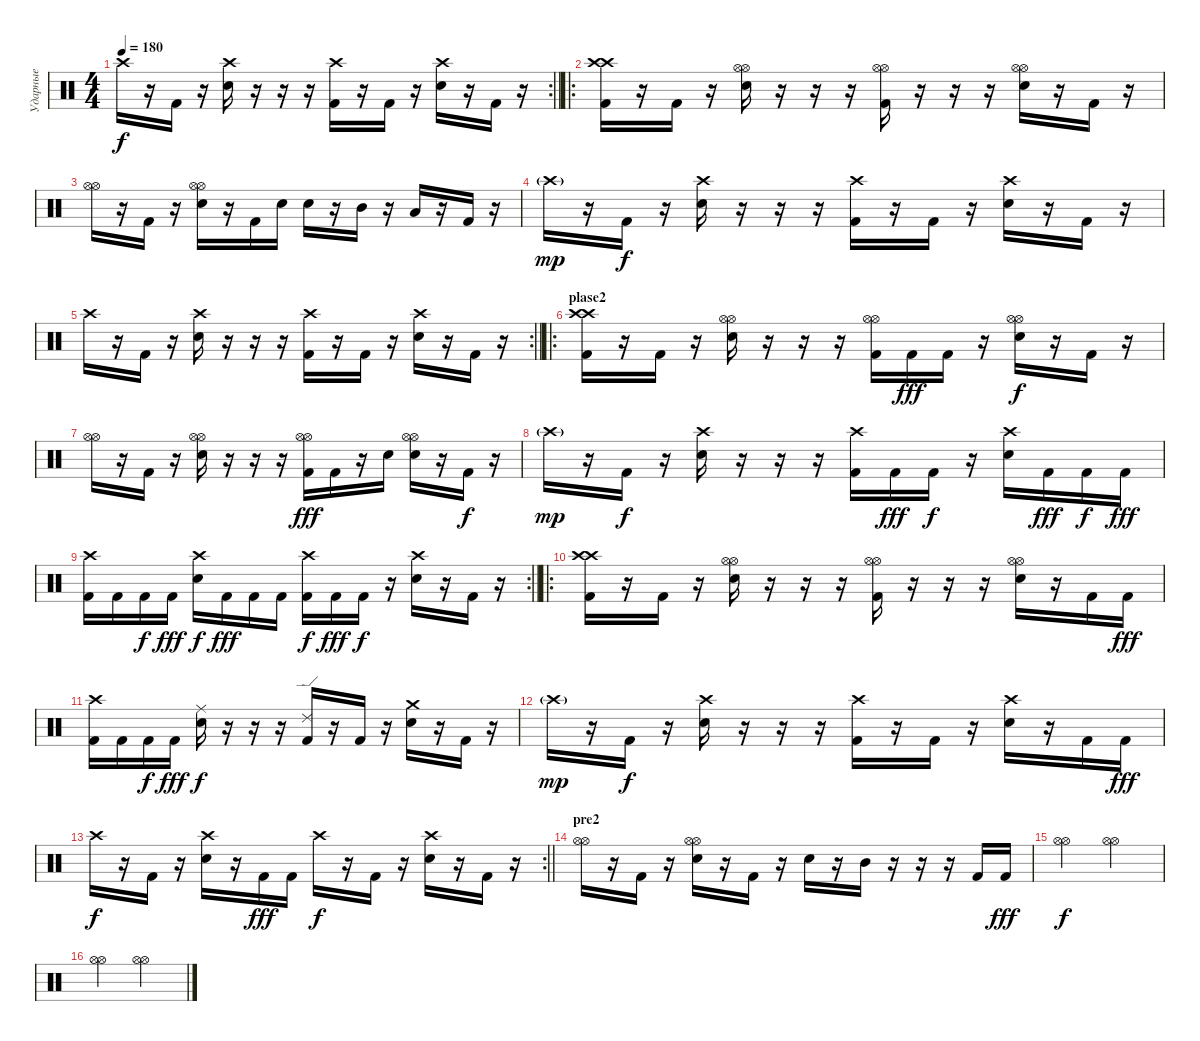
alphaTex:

\track ("Ударные" "Ударные") {instrument percussion}
\staff {score}
\articulation defaults
\rc 2
\ts (4 4)
\tempo 180
\clef neutral
\barLineRight lightlight
\ks c "Crash high (hit)".16{dy f}
r.16 "Kick (hit) 2".16 r.16 ("Crash high (hit)" "Electric Snare (hit)").16 r.16 r.16 r.16 ("Crash high (hit)" "Kick (hit) 2").16 r.16 "Kick (hit) 2".16 r.16 ("Crash high (hit)" "Electric Snare (hit)").16 r.16 "Kick (hit) 2".16 r.16 |
\ro
("Crash high (hit)" "Crash high (hit)" "Kick (hit) 2").16 r.16 "Kick (hit) 2".16 r.16 ("Hi-Hat (open)" "Hi-Hat (open)" "Electric Snare (hit)").16 r.16 r.16 r.16 ("Hi-Hat (open)" "Hi-Hat (open)" "Kick (hit) 2").16 r.16 r.16 r.16 ("Hi-Hat (open)" "Hi-Hat (open)" "Electric Snare (hit)").16 r.16 "Kick (hit) 2".16 r.16 |
("Hi-Hat (open)" "Hi-Hat (open)").16 r.16 "Kick (hit) 2".16 r.16 ("Hi-Hat (open)" "Hi-Hat (open)" "Electric Snare (hit)").16 r.16 "Kick (hit) 2".16 "Electric Snare (hit)".16 "Electric Snare (hit)".16 r.16 "Mid Tom (hit)".16 r.16 "Low Tom (hit)".16 r.16 "Kick (hit) 2".16 r.16 |
"Crash high (hit)"{g}.16{dy mp} r.16 "Kick (hit) 2".16{dy f} r.16 ("Crash high (hit)" "Electric Snare (hit)").16 r.16 r.16 r.16 ("Crash high (hit)" "Kick (hit) 2").16 r.16 "Kick (hit) 2".16 r.16 ("Crash high (hit)" "Electric Snare (hit)").16 r.16 "Kick (hit) 2".16 r.16 |
\rc 2
\barLineRight lightlight "Crash high (hit)".16
r.16 "Kick (hit) 2".16 r.16 ("Crash high (hit)" "Electric Snare (hit)").16 r.16 r.16 r.16 ("Crash high (hit)" "Kick (hit) 2").16 r.16 "Kick (hit) 2".16 r.16 ("Crash high (hit)" "Electric Snare (hit)").16 r.16 "Kick (hit) 2".16 r.16 |
\ro
\section ("" "plase2")
("Crash high (hit)" "Crash high (hit)" "Kick (hit) 2").16 r.16 "Kick (hit) 2".16 r.16 ("Hi-Hat (open)" "Hi-Hat (open)" "Electric Snare (hit)").16 r.16 r.16 r.16 ("Hi-Hat (open)" "Hi-Hat (open)" "Kick (hit) 2").16 "Kick (hit) 2".16{dy fff} "Kick (hit) 2".16 r.16 ("Hi-Hat (open)" "Hi-Hat (open)" "Electric Snare (hit)").16{dy f} r.16 "Kick (hit) 2".16 r.16 |
("Hi-Hat (open)" "Hi-Hat (open)").16 r.16 "Kick (hit) 2".16 r.16 ("Hi-Hat (open)" "Hi-Hat (open)" "Electric Snare (hit)").16 r.16 r.16 r.16 ("Hi-Hat (open)" "Hi-Hat (open)" "Kick (hit) 2").16{dy fff} "Kick (hit) 2".16 r.16 "Electric Snare (hit)".16 ("Hi-Hat (open)" "Hi-Hat (open)" "Electric Snare (hit)").16 r.16 "Kick (hit) 2".16{dy f} r.16 |
"Crash high (hit)"{g}.16{dy mp} r.16 "Kick (hit) 2".16{dy f} r.16 ("Crash high (hit)" "Electric Snare (hit)").16 r.16 r.16 r.16 ("Crash high (hit)" "Kick (hit) 2").16 "Kick (hit) 2".16{dy fff} "Kick (hit) 2".16{dy f} r.16 ("Crash high (hit)" "Electric Snare (hit)").16 "Kick (hit) 2".16{dy fff} "Kick (hit) 2".16{dy f} "Kick (hit) 2".16{dy fff} |
\rc 2
\barLineRight lightlight
("Crash high (hit)" "Kick (hit) 2").16 "Kick (hit) 2".16 "Kick (hit) 2".16{dy f} "Kick (hit) 2".16{dy fff} ("Crash high (hit)" "Electric Snare (hit)").16{dy f} "Kick (hit) 2".16{dy fff} "Kick (hit) 2".16 "Kick (hit) 2".16 ("Crash high (hit)" "Kick (hit) 2").16{dy f} "Kick (hit) 2".16{dy fff} "Kick (hit) 2".16{dy f} r.16 ("Crash high (hit)" "Electric Snare (hit)").16 r.16 "Kick (hit) 2".16 r.16 |
\ro
("Crash high (hit)" "Crash high (hit)" "Kick (hit) 2").16 r.16 "Kick (hit) 2".16 r.16 ("Hi-Hat (open)" "Hi-Hat (open)" "Electric Snare (hit)").16 r.16 r.16 r.16 ("Hi-Hat (open)" "Hi-Hat (open)" "Kick (hit) 2").16 r.16 r.16 r.16 ("Hi-Hat (open)" "Hi-Hat (open)" "Electric Snare (hit)").16 r.16 "Kick (hit) 2".16 "Kick (hit) 2".16{dy fff} |
("Crash high (hit)" "Kick (hit) 2").16 "Kick (hit) 2".16 "Kick (hit) 2".16{dy f} "Kick (hit) 2".16{dy fff} ("Ride (middle)" "Electric Snare (hit)").16{dy f} r.16 r.16 r.16 ("Ride (edge) 2" "Kick (hit) 2").16 r.16 "Kick (hit) 2".16 r.16 ("Crash medium (hit)" "Electric Snare (hit)").16 r.16 "Kick (hit) 2".16 r.16 |
"Crash high (hit)"{g}.16{dy mp} r.16 "Kick (hit) 2".16{dy f} r.16 ("Crash high (hit)" "Electric Snare (hit)").16 r.16 r.16 r.16 ("Crash high (hit)" "Kick (hit) 2").16 r.16 "Kick (hit) 2".16 r.16 ("Crash high (hit)" "Electric Snare (hit)").16 r.16 "Kick (hit) 2".16 "Kick (hit) 2".16{dy fff} |
\rc 2
\barLineRight lightlight "Crash high (hit)".16{dy f}
r.16 "Kick (hit) 2".16 r.16 ("Crash high (hit)" "Electric Snare (hit)").16 r.16 "Kick (hit) 2".16{dy fff} "Kick (hit) 2".16 "Crash high (hit)".16{dy f} r.16 "Kick (hit) 2".16 r.16 ("Crash high (hit)" "Electric Snare (hit)").16 r.16 "Kick (hit) 2".16 r.16 |
\section ("" "pre2")
("Hi-Hat (open)" "Hi-Hat (open)").16 r.16 "Kick (hit) 2".16 r.16 ("Hi-Hat (open)" "Hi-Hat (open)" "Electric Snare (hit)").16 r.16 "Kick (hit) 2".16 r.16 "Electric Snare (hit)".16 r.16 "Mid Tom (hit)".16 r.16 r.16 r.16 "Kick (hit) 2".16 "Kick (hit) 2".16{dy fff} |
("Hi-Hat (open)" "Hi-Hat (open)").2{dy f} ("Hi-Hat (open)" "Hi-Hat (open)").2 |
("Hi-Hat (open)" "Hi-Hat (open)").2 ("Hi-Hat (open)" "Hi-Hat (open)").2
